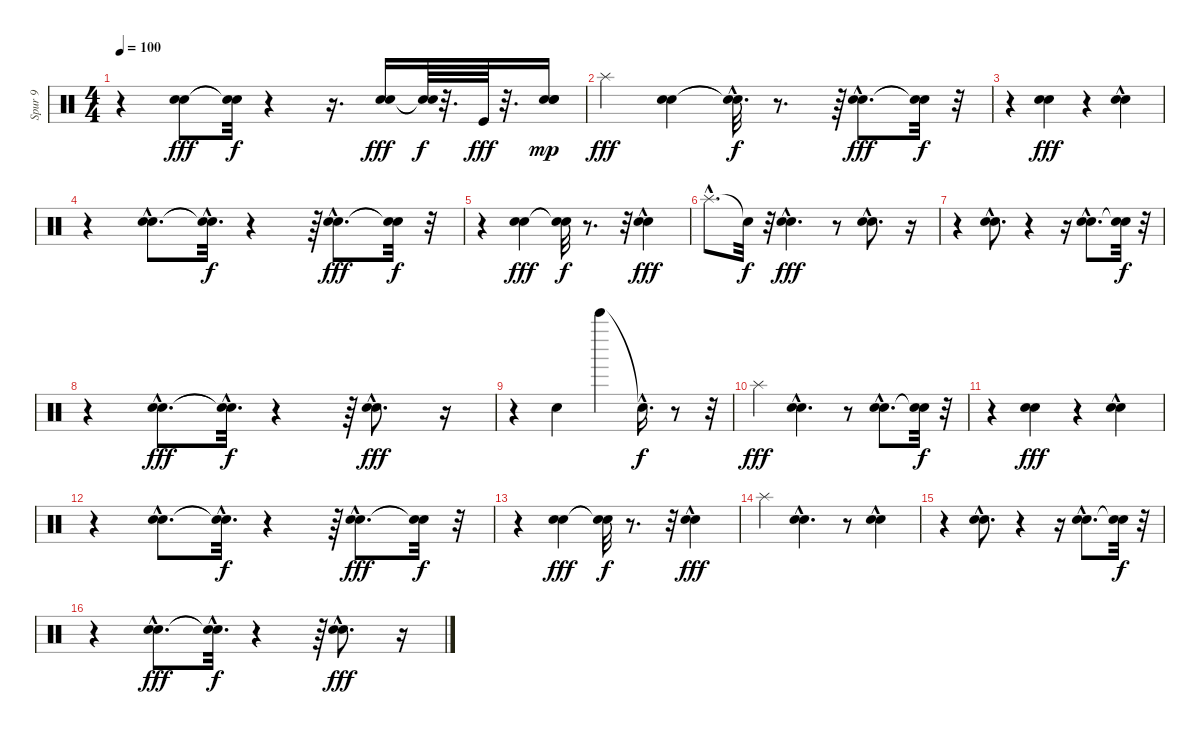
\track ("Spur 9" "Spur 9") {instrument percussion}
\staff {score}
\articulation defaults
\ts (4 4)
\tempo 100
\clef neutral
\ks c
r.4{dy fff} ("Metronome (bell)" "Snare (hit) 2").8 ("Snare (hit)"{t} "Snare (hit)"{t}).32{dy f} r.4 r.16{d} ("Metronome (bell)" "Snare (hit) 2").16{dy fff} ("Snare (hit)"{t} "Snare (hit)"{t}).64{dy f} r.32{d} "Kick (hit)".64{dy fff} r.32{d} ("Metronome (bell)" "Snare (hit) 2" "Hand Clap (hit)").16{dy mp} |
"Splash (hit)".4{dy fff} ("Metronome (bell)" "Snare (hit) 2").4 ("Snare (hit)"{hac t} "Snare (hit)"{hac t}).32{d dy f} r.8{d} r.64 ("Snare (hit) 2"{hac} "Metronome (bell)"{hac}).8{d dy fff} ("Snare (hit)"{t} "Snare (hit)"{t}).32{dy f} r.32 |
r.4 ("Metronome (bell)" "Snare (hit) 2").4{dy fff} r.4 ("Metronome (bell)"{hac} "Snare (hit) 2").4 |
r.4 ("Metronome (bell)"{hac} "Snare (hit) 2"{hac}).8{d} ("Snare (hit)"{hac t} "Snare (hit)"{hac t}).32{d dy f} r.4 r.64 ("Metronome (bell)"{hac} "Snare (hit) 2"{hac}).8{d dy fff} ("Snare (hit)"{t} "Snare (hit)"{t}).32{dy f} r.32 |
r.4 ("Metronome (bell)" "Snare (hit) 2").4{dy fff} ("Snare (hit)"{t} "Snare (hit)"{t}).32{dy f} r.8{d} r.32 ("Snare (hit) 2" "Metronome (bell)"{hac}).4{dy fff} |
"Splash (hit)"{hac}.8{d} "Snare (hit)"{t}.32{dy f} r.32 ("Snare (hit) 2" "Metronome (bell)"{hac}).4{d dy fff} r.8 ("Snare (hit) 2"{hac} "Metronome (bell)").8{d} r.16 |
r.4 ("Metronome (bell)"{hac} "Snare (hit) 2"{hac}).8{d} r.4 r.16 ("Metronome (bell)"{hac} "Snare (hit) 2"{hac}).8{d} ("Snare (hit)"{t} "Snare (hit)"{t}).32{dy f} r.32 |
r.4 ("Metronome (bell)"{hac} "Snare (hit) 2"{hac}).8{d dy fff} ("Snare (hit)"{hac t} "Snare (hit)"{hac t}).32{d dy f} r.4 r.64 ("Metronome (bell)"{hac} "Snare (hit) 2"{hac}).8{d dy fff} r.16 |
r.4 "Snare (hit) 2".4 "Bell Tree (hit)".4 "Snare (hit)"{hac t}.16{d dy f} r.8 r.32 |
"Splash (hit)".4{dy fff} ("Snare (hit) 2"{hac} "Metronome (bell)"{hac}).4{d} r.8 ("Snare (hit) 2"{hac} "Metronome (bell)"{hac}).8{d} ("Snare (hit)"{t} "Snare (hit)"{t}).32{dy f} r.32 |
r.4 ("Metronome (bell)" "Snare (hit) 2").4{dy fff} r.4 ("Metronome (bell)"{hac} "Snare (hit) 2").4 |
r.4 ("Metronome (bell)"{hac} "Snare (hit) 2"{hac}).8{d} ("Snare (hit)"{hac t} "Snare (hit)"{hac t}).32{d dy f} r.4 r.64 ("Metronome (bell)"{hac} "Snare (hit) 2"{hac}).8{d dy fff} ("Snare (hit)"{t} "Snare (hit)"{t}).32{dy f} r.32 |
r.4 ("Metronome (bell)" "Snare (hit) 2").4{dy fff} ("Snare (hit)"{t} "Snare (hit)"{t}).32{dy f} r.8{d} r.32 ("Snare (hit) 2" "Metronome (bell)"{hac}).4{dy fff} |
"Splash (hit)".4 ("Snare (hit) 2"{hac} "Metronome (bell)"{hac}).4{d} r.8 ("Snare (hit) 2" "Metronome (bell)"{hac}).4 |
r.4 ("Metronome (bell)"{hac} "Snare (hit) 2"{hac}).8{d} r.4 r.16 ("Metronome (bell)"{hac} "Snare (hit) 2"{hac}).8{d} ("Snare (hit)"{t} "Snare (hit)"{t}).32{dy f} r.32 |
r.4 ("Metronome (bell)"{hac} "Snare (hit) 2"{hac}).8{d dy fff} ("Snare (hit)"{hac t} "Snare (hit)"{hac t}).32{d dy f} r.4 r.64 ("Metronome (bell)"{hac} "Snare (hit) 2"{hac}).8{d dy fff} r.16
